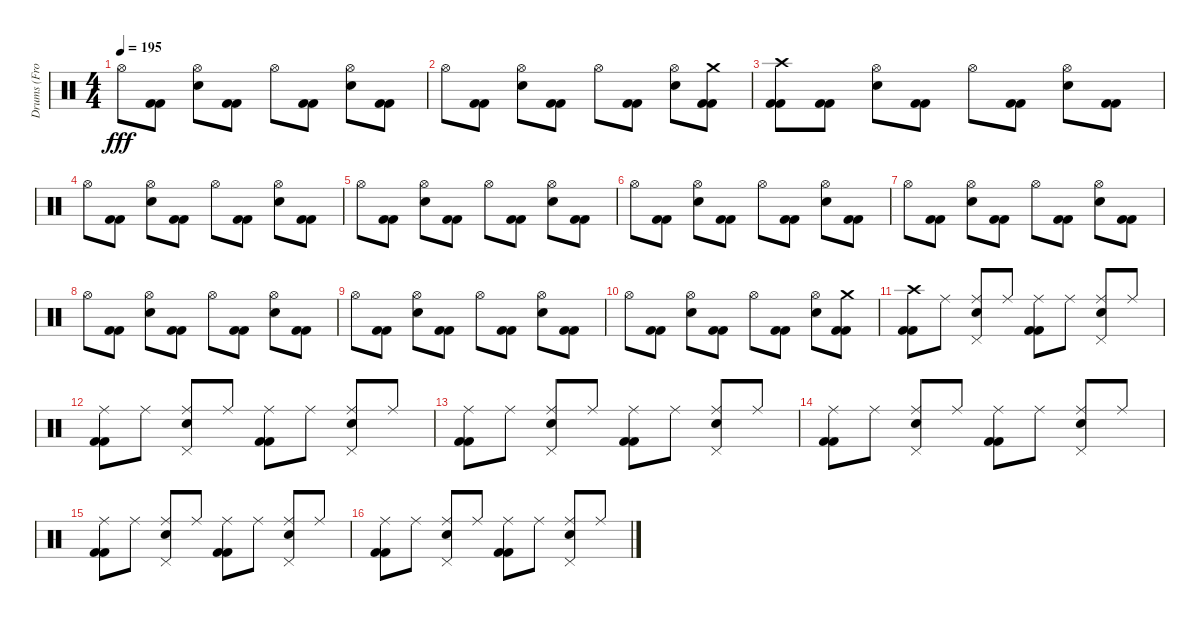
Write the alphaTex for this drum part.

\track ("Drums (From Other GP)" "Drums (Fro") {instrument percussion}
\staff {score}
\articulation defaults
\ts (4 4)
\tempo 195
\clef neutral
\ks c "Hi-Hat (open)".8{dy fff}
("Kick (hit) 2" "Kick (hit) 2").8 ("Hi-Hat (open)" "Electric Snare (hit)").8 ("Kick (hit) 2" "Kick (hit) 2").8 "Hi-Hat (open)".8 ("Kick (hit) 2" "Kick (hit) 2").8 ("Hi-Hat (open)" "Electric Snare (hit)").8 ("Kick (hit) 2" "Kick (hit) 2").8 |
"Hi-Hat (open)".8 ("Kick (hit) 2" "Kick (hit) 2").8 ("Hi-Hat (open)" "Electric Snare (hit)").8 ("Kick (hit) 2" "Kick (hit) 2").8 "Hi-Hat (open)".8 ("Kick (hit) 2" "Kick (hit) 2").8 ("Hi-Hat (open)" "Electric Snare (hit)").8 ("Crash medium (hit)" "Kick (hit) 2" "Kick (hit) 2").8 |
("Crash high (hit)" "Kick (hit) 2" "Kick (hit) 2").8 ("Kick (hit) 2" "Kick (hit) 2").8 ("Hi-Hat (open)" "Electric Snare (hit)").8 ("Kick (hit) 2" "Kick (hit) 2").8 "Hi-Hat (open)".8 ("Kick (hit) 2" "Kick (hit) 2").8 ("Hi-Hat (open)" "Electric Snare (hit)").8 ("Kick (hit) 2" "Kick (hit) 2").8 |
"Hi-Hat (open)".8 ("Kick (hit) 2" "Kick (hit) 2").8 ("Hi-Hat (open)" "Electric Snare (hit)").8 ("Kick (hit) 2" "Kick (hit) 2").8 "Hi-Hat (open)".8 ("Kick (hit) 2" "Kick (hit) 2").8 ("Hi-Hat (open)" "Electric Snare (hit)").8 ("Kick (hit) 2" "Kick (hit) 2").8 |
"Hi-Hat (open)".8 ("Kick (hit) 2" "Kick (hit) 2").8 ("Hi-Hat (open)" "Electric Snare (hit)").8 ("Kick (hit) 2" "Kick (hit) 2").8 "Hi-Hat (open)".8 ("Kick (hit) 2" "Kick (hit) 2").8 ("Hi-Hat (open)" "Electric Snare (hit)").8 ("Kick (hit) 2" "Kick (hit) 2").8 |
"Hi-Hat (open)".8 ("Kick (hit) 2" "Kick (hit) 2").8 ("Hi-Hat (open)" "Electric Snare (hit)").8 ("Kick (hit) 2" "Kick (hit) 2").8 "Hi-Hat (open)".8 ("Kick (hit) 2" "Kick (hit) 2").8 ("Hi-Hat (open)" "Electric Snare (hit)").8 ("Kick (hit) 2" "Kick (hit) 2").8 |
"Hi-Hat (open)".8 ("Kick (hit) 2" "Kick (hit) 2").8 ("Hi-Hat (open)" "Electric Snare (hit)").8 ("Kick (hit) 2" "Kick (hit) 2").8 "Hi-Hat (open)".8 ("Kick (hit) 2" "Kick (hit) 2").8 ("Hi-Hat (open)" "Electric Snare (hit)").8 ("Kick (hit) 2" "Kick (hit) 2").8 |
"Hi-Hat (open)".8 ("Kick (hit) 2" "Kick (hit) 2").8 ("Hi-Hat (open)" "Electric Snare (hit)").8 ("Kick (hit) 2" "Kick (hit) 2").8 "Hi-Hat (open)".8 ("Kick (hit) 2" "Kick (hit) 2").8 ("Hi-Hat (open)" "Electric Snare (hit)").8 ("Kick (hit) 2" "Kick (hit) 2").8 |
"Hi-Hat (open)".8 ("Kick (hit) 2" "Kick (hit) 2").8 ("Hi-Hat (open)" "Electric Snare (hit)").8 ("Kick (hit) 2" "Kick (hit) 2").8 "Hi-Hat (open)".8 ("Kick (hit) 2" "Kick (hit) 2").8 ("Hi-Hat (open)" "Electric Snare (hit)").8 ("Kick (hit) 2" "Kick (hit) 2").8 |
"Hi-Hat (open)".8 ("Kick (hit) 2" "Kick (hit) 2").8 ("Hi-Hat (open)" "Electric Snare (hit)").8 ("Kick (hit) 2" "Kick (hit) 2").8 "Hi-Hat (open)".8 ("Kick (hit) 2" "Kick (hit) 2").8 ("Hi-Hat (open)" "Electric Snare (hit)").8 ("Crash medium (hit)" "Kick (hit) 2" "Kick (hit) 2").8 |
("Crash high (hit)" "Kick (hit) 2" "Kick (hit) 2").8 "Ride (middle)".8 ("Ride (middle)" "Pedal Hi-Hat (hit)" "Electric Snare (hit)").8 "Ride (middle)".8 ("Ride (middle)" "Kick (hit) 2" "Kick (hit) 2").8 "Ride (middle)".8 ("Ride (middle)" "Pedal Hi-Hat (hit)" "Electric Snare (hit)").8 "Ride (middle)".8 |
("Ride (middle)" "Kick (hit) 2" "Kick (hit) 2").8 "Ride (middle)".8 ("Ride (middle)" "Pedal Hi-Hat (hit)" "Electric Snare (hit)").8 "Ride (middle)".8 ("Ride (middle)" "Kick (hit) 2" "Kick (hit) 2").8 "Ride (middle)".8 ("Ride (middle)" "Pedal Hi-Hat (hit)" "Electric Snare (hit)").8 "Ride (middle)".8 |
("Ride (middle)" "Kick (hit) 2" "Kick (hit) 2").8 "Ride (middle)".8 ("Ride (middle)" "Pedal Hi-Hat (hit)" "Electric Snare (hit)").8 "Ride (middle)".8 ("Ride (middle)" "Kick (hit) 2" "Kick (hit) 2").8 "Ride (middle)".8 ("Ride (middle)" "Pedal Hi-Hat (hit)" "Electric Snare (hit)").8 "Ride (middle)".8 |
("Ride (middle)" "Kick (hit) 2" "Kick (hit) 2").8 "Ride (middle)".8 ("Ride (middle)" "Pedal Hi-Hat (hit)" "Electric Snare (hit)").8 "Ride (middle)".8 ("Ride (middle)" "Kick (hit) 2" "Kick (hit) 2").8 "Ride (middle)".8 ("Ride (middle)" "Pedal Hi-Hat (hit)" "Electric Snare (hit)").8 "Ride (middle)".8 |
("Ride (middle)" "Kick (hit) 2" "Kick (hit) 2").8 "Ride (middle)".8 ("Ride (middle)" "Pedal Hi-Hat (hit)" "Electric Snare (hit)").8 "Ride (middle)".8 ("Ride (middle)" "Kick (hit) 2" "Kick (hit) 2").8 "Ride (middle)".8 ("Ride (middle)" "Pedal Hi-Hat (hit)" "Electric Snare (hit)").8 "Ride (middle)".8 |
("Ride (middle)" "Kick (hit) 2" "Kick (hit) 2").8 "Ride (middle)".8 ("Ride (middle)" "Pedal Hi-Hat (hit)" "Electric Snare (hit)").8 "Ride (middle)".8 ("Ride (middle)" "Kick (hit) 2" "Kick (hit) 2").8 "Ride (middle)".8 ("Ride (middle)" "Pedal Hi-Hat (hit)" "Electric Snare (hit)").8 "Ride (middle)".8
